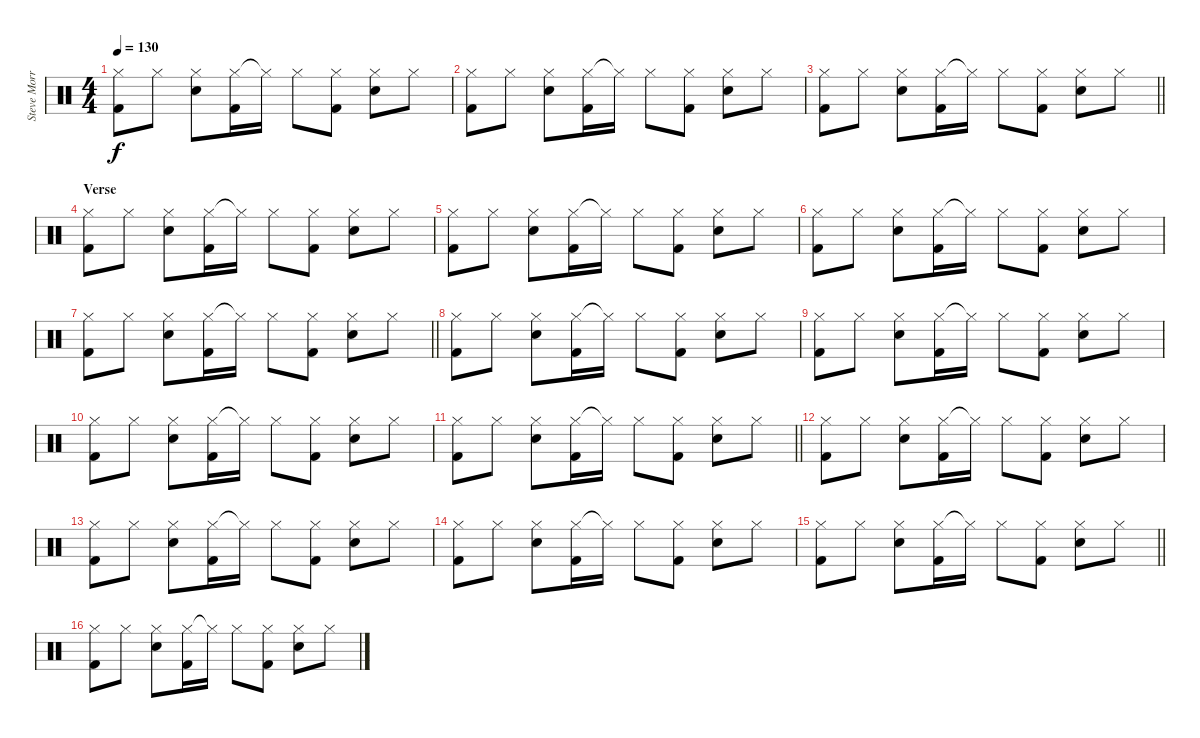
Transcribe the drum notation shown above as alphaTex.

\track ("Steve Morris" "Steve Morr") {instrument percussion}
\staff {score}
\articulation defaults
\ts (4 4)
\tempo 130
\clef neutral
\ks c
("Hi-Hat (closed)" "Kick (hit) 2").8{dy f} "Hi-Hat (closed)".8 ("Hi-Hat (closed)" "Electric Snare (hit)").8 ("Hi-Hat (closed)" "Kick (hit) 2").16 "Hi-Hat (closed)"{t}.16 "Hi-Hat (closed)".8 ("Hi-Hat (closed)" "Kick (hit) 2").8 ("Hi-Hat (closed)" "Electric Snare (hit)").8 "Hi-Hat (closed)".8 |
("Hi-Hat (closed)" "Kick (hit) 2").8 "Hi-Hat (closed)".8 ("Hi-Hat (closed)" "Electric Snare (hit)").8 ("Hi-Hat (closed)" "Kick (hit) 2").16 "Hi-Hat (closed)"{t}.16 "Hi-Hat (closed)".8 ("Hi-Hat (closed)" "Kick (hit) 2").8 ("Hi-Hat (closed)" "Electric Snare (hit)").8 "Hi-Hat (closed)".8 |
\barLineRight lightlight
("Hi-Hat (closed)" "Kick (hit) 2").8 "Hi-Hat (closed)".8 ("Hi-Hat (closed)" "Electric Snare (hit)").8 ("Hi-Hat (closed)" "Kick (hit) 2").16 "Hi-Hat (closed)"{t}.16 "Hi-Hat (closed)".8 ("Hi-Hat (closed)" "Kick (hit) 2").8 ("Hi-Hat (closed)" "Electric Snare (hit)").8 "Hi-Hat (closed)".8 |
\section ("" "Verse")
("Hi-Hat (closed)" "Kick (hit) 2").8 "Hi-Hat (closed)".8 ("Hi-Hat (closed)" "Electric Snare (hit)").8 ("Hi-Hat (closed)" "Kick (hit) 2").16 "Hi-Hat (closed)"{t}.16 "Hi-Hat (closed)".8 ("Hi-Hat (closed)" "Kick (hit) 2").8 ("Hi-Hat (closed)" "Electric Snare (hit)").8 "Hi-Hat (closed)".8 |
("Hi-Hat (closed)" "Kick (hit) 2").8 "Hi-Hat (closed)".8 ("Hi-Hat (closed)" "Electric Snare (hit)").8 ("Hi-Hat (closed)" "Kick (hit) 2").16 "Hi-Hat (closed)"{t}.16 "Hi-Hat (closed)".8 ("Hi-Hat (closed)" "Kick (hit) 2").8 ("Hi-Hat (closed)" "Electric Snare (hit)").8 "Hi-Hat (closed)".8 |
("Hi-Hat (closed)" "Kick (hit) 2").8 "Hi-Hat (closed)".8 ("Hi-Hat (closed)" "Electric Snare (hit)").8 ("Hi-Hat (closed)" "Kick (hit) 2").16 "Hi-Hat (closed)"{t}.16 "Hi-Hat (closed)".8 ("Hi-Hat (closed)" "Kick (hit) 2").8 ("Hi-Hat (closed)" "Electric Snare (hit)").8 "Hi-Hat (closed)".8 |
\barLineRight lightlight
("Hi-Hat (closed)" "Kick (hit) 2").8 "Hi-Hat (closed)".8 ("Hi-Hat (closed)" "Electric Snare (hit)").8 ("Hi-Hat (closed)" "Kick (hit) 2").16 "Hi-Hat (closed)"{t}.16 "Hi-Hat (closed)".8 ("Hi-Hat (closed)" "Kick (hit) 2").8 ("Hi-Hat (closed)" "Electric Snare (hit)").8 "Hi-Hat (closed)".8 |
("Hi-Hat (closed)" "Kick (hit) 2").8 "Hi-Hat (closed)".8 ("Hi-Hat (closed)" "Electric Snare (hit)").8 ("Hi-Hat (closed)" "Kick (hit) 2").16 "Hi-Hat (closed)"{t}.16 "Hi-Hat (closed)".8 ("Hi-Hat (closed)" "Kick (hit) 2").8 ("Hi-Hat (closed)" "Electric Snare (hit)").8 "Hi-Hat (closed)".8 |
("Hi-Hat (closed)" "Kick (hit) 2").8 "Hi-Hat (closed)".8 ("Hi-Hat (closed)" "Electric Snare (hit)").8 ("Hi-Hat (closed)" "Kick (hit) 2").16 "Hi-Hat (closed)"{t}.16 "Hi-Hat (closed)".8 ("Hi-Hat (closed)" "Kick (hit) 2").8 ("Hi-Hat (closed)" "Electric Snare (hit)").8 "Hi-Hat (closed)".8 |
("Hi-Hat (closed)" "Kick (hit) 2").8 "Hi-Hat (closed)".8 ("Hi-Hat (closed)" "Electric Snare (hit)").8 ("Hi-Hat (closed)" "Kick (hit) 2").16 "Hi-Hat (closed)"{t}.16 "Hi-Hat (closed)".8 ("Hi-Hat (closed)" "Kick (hit) 2").8 ("Hi-Hat (closed)" "Electric Snare (hit)").8 "Hi-Hat (closed)".8 |
\barLineRight lightlight
("Hi-Hat (closed)" "Kick (hit) 2").8 "Hi-Hat (closed)".8 ("Hi-Hat (closed)" "Electric Snare (hit)").8 ("Hi-Hat (closed)" "Kick (hit) 2").16 "Hi-Hat (closed)"{t}.16 "Hi-Hat (closed)".8 ("Hi-Hat (closed)" "Kick (hit) 2").8 ("Hi-Hat (closed)" "Electric Snare (hit)").8 "Hi-Hat (closed)".8 |
("Hi-Hat (closed)" "Kick (hit) 2").8 "Hi-Hat (closed)".8 ("Hi-Hat (closed)" "Electric Snare (hit)").8 ("Hi-Hat (closed)" "Kick (hit) 2").16 "Hi-Hat (closed)"{t}.16 "Hi-Hat (closed)".8 ("Hi-Hat (closed)" "Kick (hit) 2").8 ("Hi-Hat (closed)" "Electric Snare (hit)").8 "Hi-Hat (closed)".8 |
("Hi-Hat (closed)" "Kick (hit) 2").8 "Hi-Hat (closed)".8 ("Hi-Hat (closed)" "Electric Snare (hit)").8 ("Hi-Hat (closed)" "Kick (hit) 2").16 "Hi-Hat (closed)"{t}.16 "Hi-Hat (closed)".8 ("Hi-Hat (closed)" "Kick (hit) 2").8 ("Hi-Hat (closed)" "Electric Snare (hit)").8 "Hi-Hat (closed)".8 |
("Hi-Hat (closed)" "Kick (hit) 2").8 "Hi-Hat (closed)".8 ("Hi-Hat (closed)" "Electric Snare (hit)").8 ("Hi-Hat (closed)" "Kick (hit) 2").16 "Hi-Hat (closed)"{t}.16 "Hi-Hat (closed)".8 ("Hi-Hat (closed)" "Kick (hit) 2").8 ("Hi-Hat (closed)" "Electric Snare (hit)").8 "Hi-Hat (closed)".8 |
\barLineRight lightlight
("Hi-Hat (closed)" "Kick (hit) 2").8 "Hi-Hat (closed)".8 ("Hi-Hat (closed)" "Electric Snare (hit)").8 ("Hi-Hat (closed)" "Kick (hit) 2").16 "Hi-Hat (closed)"{t}.16 "Hi-Hat (closed)".8 ("Hi-Hat (closed)" "Kick (hit) 2").8 ("Hi-Hat (closed)" "Electric Snare (hit)").8 "Hi-Hat (closed)".8 |
("Hi-Hat (closed)" "Kick (hit) 2").8 "Hi-Hat (closed)".8 ("Hi-Hat (closed)" "Electric Snare (hit)").8 ("Hi-Hat (closed)" "Kick (hit) 2").16 "Hi-Hat (closed)"{t}.16 "Hi-Hat (closed)".8 ("Hi-Hat (closed)" "Kick (hit) 2").8 ("Hi-Hat (closed)" "Electric Snare (hit)").8 "Hi-Hat (closed)".8
